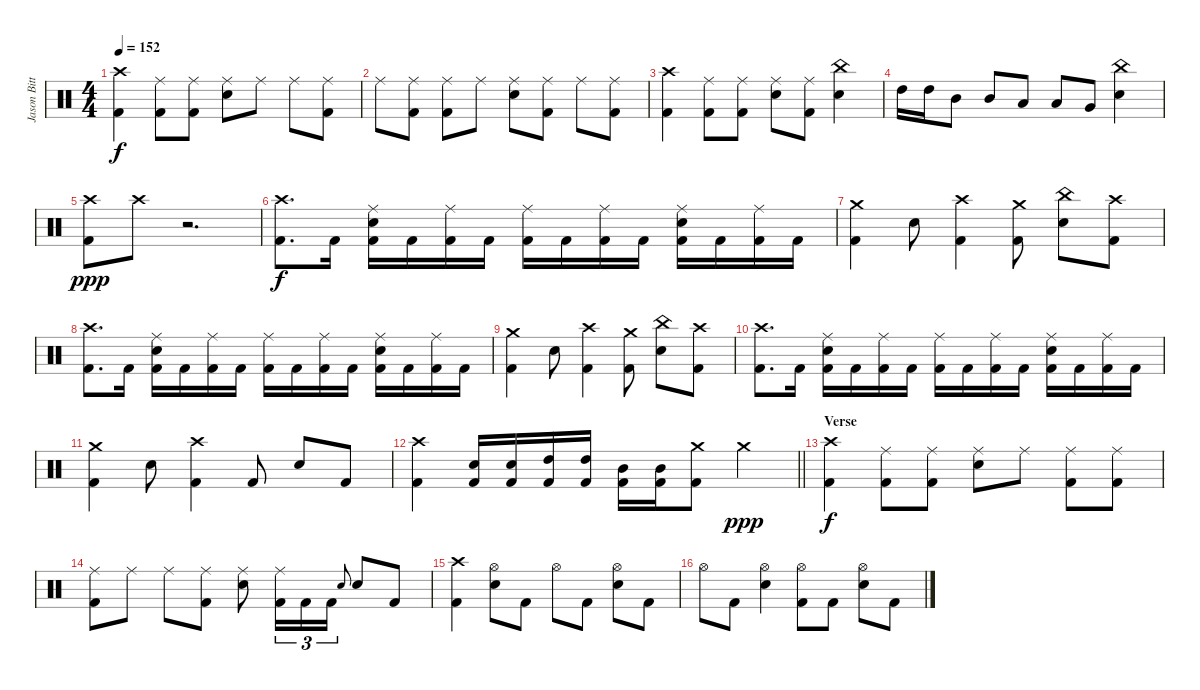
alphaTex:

\track ("Jason Bittner" "Jason Bitt") {instrument percussion}
\staff {score}
\articulation defaults
\ts (4 4)
\tempo 152
\clef neutral
\ks c
("Crash high (hit)" "Kick (hit) 2").4{dy f} ("Ride (middle)" "Kick (hit) 2").8 ("Ride (middle)" "Kick (hit) 2").8 ("Ride (middle)" "Electric Snare (hit)").8 "Ride (middle)".8 "Ride (middle)".8 ("Ride (middle)" "Kick (hit) 2").8 |
"Ride (middle)".8 ("Ride (middle)" "Kick (hit) 2").8 ("Ride (middle)" "Kick (hit) 2").8 "Ride (middle)".8 ("Ride (middle)" "Electric Snare (hit)").8 ("Ride (middle)" "Kick (hit) 2").8 "Ride (middle)".8 ("Ride (middle)" "Kick (hit) 2").8 |
("Crash high (hit)" "Kick (hit) 2").4 ("Ride (middle)" "Kick (hit) 2").8 ("Ride (middle)" "Kick (hit) 2").8 ("Ride (middle)" "Electric Snare (hit)").8 ("Ride (middle)" "Kick (hit) 2").8 ("China (hit)" "Electric Snare (hit)").4 |
"High Tom (hit)".16 "High Tom (hit)".16 "Mid Tom (hit)".8 "Mid Tom (hit)".8 "Low Tom (hit)".8 "Low Tom (hit)".8 "Very Low Tom (hit)".8 ("China (hit)" "Electric Snare (hit)").4 |
("Crash high (hit)" "Kick (hit) 2").8{dy ppp} "Crash high (hit)".8 r.2{d} |
("Crash high (hit)" "Kick (hit) 2").8{d dy f} "Kick (hit) 2".16 ("Ride (middle)" "Electric Snare (hit)" "Kick (hit) 2").16 "Kick (hit) 2".16 ("Ride (middle)" "Kick (hit) 2").16 "Kick (hit) 2".16 ("Ride (middle)" "Kick (hit) 2").16 "Kick (hit) 2".16 ("Ride (middle)" "Kick (hit) 2").16 "Kick (hit) 2".16 ("Ride (middle)" "Electric Snare (hit)" "Kick (hit) 2").16 "Kick (hit) 2".16 ("Ride (middle)" "Kick (hit) 2").16 "Kick (hit) 2".16 |
("Crash medium (hit)" "Kick (hit) 2").4 "Electric Snare (hit)".8 ("Crash high (hit)" "Kick (hit) 2").4 ("Crash medium (hit)" "Kick (hit) 2").8 ("China (hit)" "Electric Snare (hit)").8 ("Crash high (hit)" "Kick (hit) 2").8 |
("Crash high (hit)" "Kick (hit) 2").8{d} "Kick (hit) 2".16 ("Ride (middle)" "Electric Snare (hit)" "Kick (hit) 2").16 "Kick (hit) 2".16 ("Ride (middle)" "Kick (hit) 2").16 "Kick (hit) 2".16 ("Ride (middle)" "Kick (hit) 2").16 "Kick (hit) 2".16 ("Ride (middle)" "Kick (hit) 2").16 "Kick (hit) 2".16 ("Ride (middle)" "Electric Snare (hit)" "Kick (hit) 2").16 "Kick (hit) 2".16 ("Ride (middle)" "Kick (hit) 2").16 "Kick (hit) 2".16 |
("Crash medium (hit)" "Kick (hit) 2").4 "Electric Snare (hit)".8 ("Crash high (hit)" "Kick (hit) 2").4 ("Crash medium (hit)" "Kick (hit) 2").8 ("China (hit)" "Electric Snare (hit)").8 ("Crash high (hit)" "Kick (hit) 2").8 |
("Crash high (hit)" "Kick (hit) 2").8{d} "Kick (hit) 2".16 ("Ride (middle)" "Electric Snare (hit)" "Kick (hit) 2").16 "Kick (hit) 2".16 ("Ride (middle)" "Kick (hit) 2").16 "Kick (hit) 2".16 ("Ride (middle)" "Kick (hit) 2").16 "Kick (hit) 2".16 ("Ride (middle)" "Kick (hit) 2").16 "Kick (hit) 2".16 ("Ride (middle)" "Electric Snare (hit)" "Kick (hit) 2").16 "Kick (hit) 2".16 ("Ride (middle)" "Kick (hit) 2").16 "Kick (hit) 2".16 |
("Crash medium (hit)" "Kick (hit) 2").4 "Electric Snare (hit)".8 ("Crash high (hit)" "Kick (hit) 2").4 "Kick (hit) 2".8 "Electric Snare (hit)".8 "Kick (hit) 2".8 |
\barLineRight lightlight
("Crash high (hit)" "Kick (hit) 2").4 ("Electric Snare (hit)" "Kick (hit) 2").16 ("Electric Snare (hit)" "Kick (hit) 2").16 ("High Tom (hit)" "Kick (hit) 2").16 ("High Tom (hit)" "Kick (hit) 2").16 ("Mid Tom (hit)" "Kick (hit) 2").16 ("Mid Tom (hit)" "Kick (hit) 2").16 ("Crash medium (hit)" "Kick (hit) 2").8 "Crash medium (hit)".4{dy ppp} |
\section ("" "Verse")
("Crash high (hit)" "Kick (hit) 2").4{dy f} ("Ride (middle)" "Kick (hit) 2").8 ("Ride (middle)" "Kick (hit) 2").8 ("Ride (middle)" "Electric Snare (hit)").8 "Ride (middle)".8 ("Ride (middle)" "Kick (hit) 2").8 ("Ride (middle)" "Kick (hit) 2").8 |
("Ride (middle)" "Kick (hit) 2").8 "Ride (middle)".8 "Ride (middle)".8 ("Ride (middle)" "Kick (hit) 2").8 ("Ride (middle)" "Electric Snare (hit)").8 ("Ride (middle)" "Kick (hit) 2").16{tu (3 2)} "Kick (hit) 2".16{tu (3 2)} "Kick (hit) 2".16{tu (3 2)} "Electric Snare (hit)".8{gr onbeat} "Electric Snare (hit)".8 "Kick (hit) 2".8 |
("Crash high (hit)" "Kick (hit) 2").4 ("Hi-Hat (open)" "Electric Snare (hit)").8 "Kick (hit) 2".8 "Hi-Hat (open)".8 "Kick (hit) 2".8 ("Hi-Hat (open)" "Electric Snare (hit)").8 "Kick (hit) 2".8 |
"Hi-Hat (open)".8 "Kick (hit) 2".8 ("Hi-Hat (open)" "Electric Snare (hit)").4 ("Hi-Hat (open)" "Kick (hit) 2").8 "Kick (hit) 2".8 ("Hi-Hat (open)" "Electric Snare (hit)").8 "Kick (hit) 2".8
